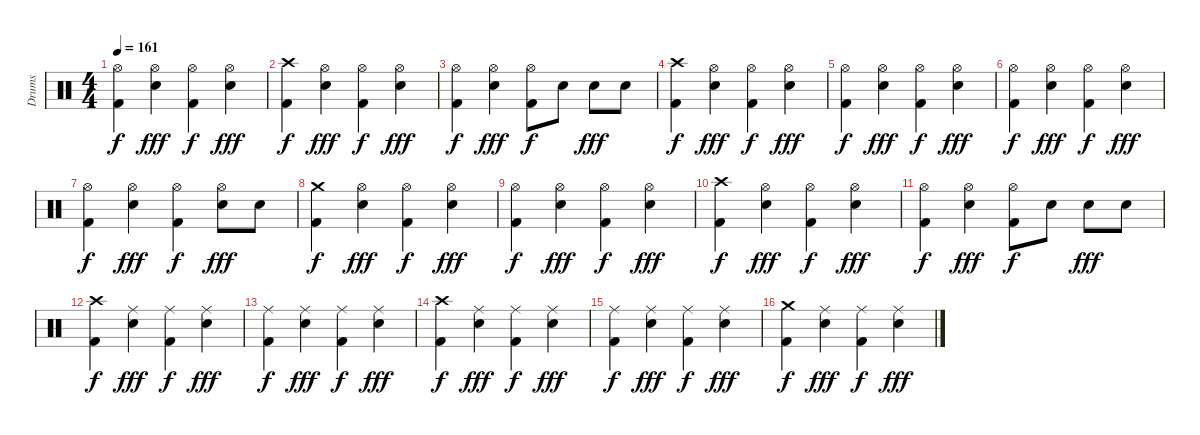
\track ("Drums" "Drums") {instrument percussion}
\staff {score}
\articulation defaults
\ts (4 4)
\tempo 161
\clef neutral
\ks c
("Hi-Hat (open)" "Kick (hit) 2").4{dy f} ("Hi-Hat (open)" "Electric Snare (hit)").4{dy fff} ("Hi-Hat (open)" "Kick (hit) 2").4{dy f} ("Hi-Hat (open)" "Electric Snare (hit)").4{dy fff} |
("Crash high (hit)" "Kick (hit) 2").4{dy f} ("Hi-Hat (open)" "Electric Snare (hit)").4{dy fff} ("Hi-Hat (open)" "Kick (hit) 2").4{dy f} ("Hi-Hat (open)" "Electric Snare (hit)").4{dy fff} |
("Hi-Hat (open)" "Kick (hit) 2").4{dy f} ("Hi-Hat (open)" "Electric Snare (hit)").4{dy fff} ("Hi-Hat (open)" "Kick (hit) 2").8{dy f} "Electric Snare (hit)".8 "Electric Snare (hit)".8{dy fff} "Electric Snare (hit)".8 |
("Crash high (hit)" "Kick (hit) 2").4{dy f} ("Hi-Hat (open)" "Electric Snare (hit)").4{dy fff} ("Hi-Hat (open)" "Kick (hit) 2").4{dy f} ("Hi-Hat (open)" "Electric Snare (hit)").4{dy fff} |
("Hi-Hat (open)" "Kick (hit) 2").4{dy f} ("Hi-Hat (open)" "Electric Snare (hit)").4{dy fff} ("Hi-Hat (open)" "Kick (hit) 2").4{dy f} ("Hi-Hat (open)" "Electric Snare (hit)").4{dy fff} |
("Hi-Hat (open)" "Kick (hit) 2").4{dy f} ("Hi-Hat (open)" "Electric Snare (hit)").4{dy fff} ("Hi-Hat (open)" "Kick (hit) 2").4{dy f} ("Hi-Hat (open)" "Electric Snare (hit)").4{dy fff} |
("Hi-Hat (open)" "Kick (hit) 2").4{dy f} ("Hi-Hat (open)" "Electric Snare (hit)").4{dy fff} ("Hi-Hat (open)" "Kick (hit) 2").4{dy f} ("Hi-Hat (open)" "Electric Snare (hit)").8{dy fff} "Electric Snare (hit)".8 |
("Crash medium (hit)" "Kick (hit) 2").4{dy f} ("Hi-Hat (open)" "Electric Snare (hit)").4{dy fff} ("Hi-Hat (open)" "Kick (hit) 2").4{dy f} ("Hi-Hat (open)" "Electric Snare (hit)").4{dy fff} |
("Hi-Hat (open)" "Kick (hit) 2").4{dy f} ("Hi-Hat (open)" "Electric Snare (hit)").4{dy fff} ("Hi-Hat (open)" "Kick (hit) 2").4{dy f} ("Hi-Hat (open)" "Electric Snare (hit)").4{dy fff} |
("Crash high (hit)" "Kick (hit) 2").4{dy f} ("Hi-Hat (open)" "Electric Snare (hit)").4{dy fff} ("Hi-Hat (open)" "Kick (hit) 2").4{dy f} ("Hi-Hat (open)" "Electric Snare (hit)").4{dy fff} |
("Hi-Hat (open)" "Kick (hit) 2").4{dy f} ("Hi-Hat (open)" "Electric Snare (hit)").4{dy fff} ("Hi-Hat (open)" "Kick (hit) 2").8{dy f} "Electric Snare (hit)".8 "Electric Snare (hit)".8{dy fff} "Electric Snare (hit)".8 |
("Crash high (hit)" "Kick (hit) 2").4{dy f} ("Ride (middle)" "Electric Snare (hit)").4{dy fff} ("Ride (middle)" "Kick (hit) 2").4{dy f} ("Ride (middle)" "Electric Snare (hit)").4{dy fff} |
("Ride (middle)" "Kick (hit) 2").4{dy f} ("Ride (middle)" "Electric Snare (hit)").4{dy fff} ("Ride (middle)" "Kick (hit) 2").4{dy f} ("Ride (middle)" "Electric Snare (hit)").4{dy fff} |
("Crash high (hit)" "Kick (hit) 2").4{dy f} ("Ride (middle)" "Electric Snare (hit)").4{dy fff} ("Ride (middle)" "Kick (hit) 2").4{dy f} ("Ride (middle)" "Electric Snare (hit)").4{dy fff} |
("Ride (middle)" "Kick (hit) 2").4{dy f} ("Ride (middle)" "Electric Snare (hit)").4{dy fff} ("Ride (middle)" "Kick (hit) 2").4{dy f} ("Ride (middle)" "Electric Snare (hit)").4{dy fff} |
("Crash medium (hit)" "Kick (hit) 2").4{dy f} ("Ride (middle)" "Electric Snare (hit)").4{dy fff} ("Ride (middle)" "Kick (hit) 2").4{dy f} ("Ride (middle)" "Electric Snare (hit)").4{dy fff}
